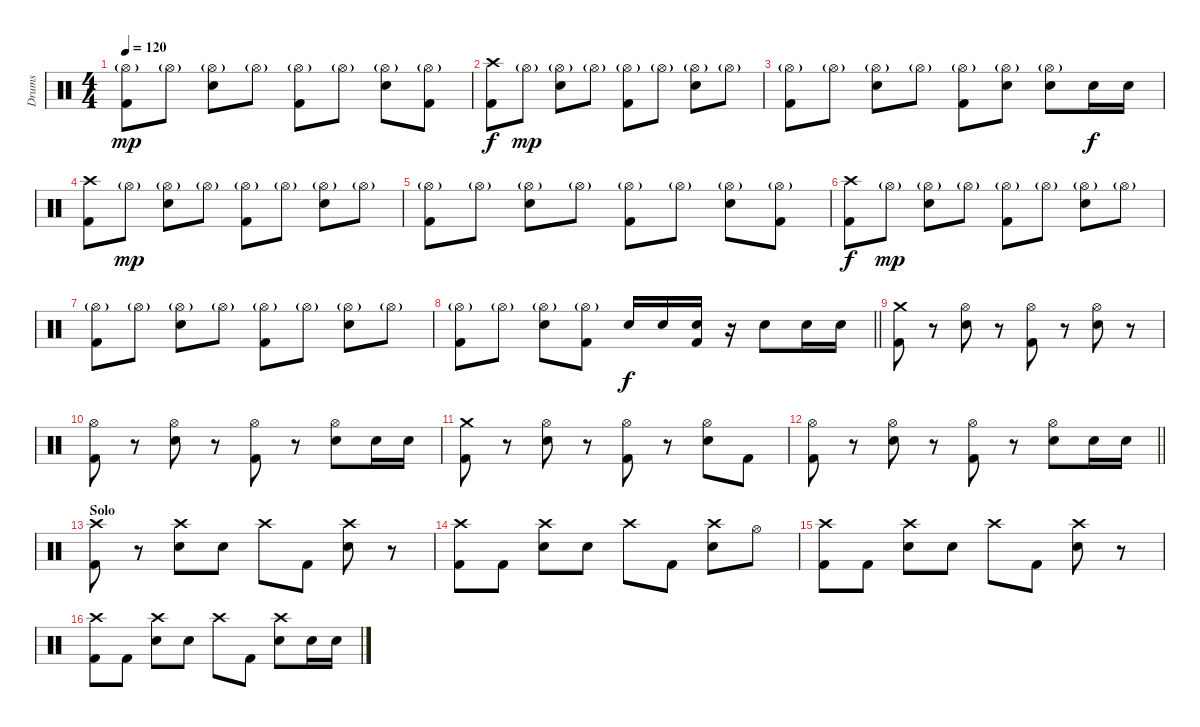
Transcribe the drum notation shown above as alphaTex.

\track ("Drums" "Drums") {instrument percussion}
\staff {score}
\articulation defaults
\ts (4 4)
\tempo 120
\clef neutral
\ks c
("Hi-Hat (open)"{g} "Kick (hit) 2").8{dy mp} "Hi-Hat (open)"{g}.8 ("Hi-Hat (open)"{g} "Electric Snare (hit)").8 "Hi-Hat (open)"{g}.8 ("Hi-Hat (open)"{g} "Kick (hit) 2").8 "Hi-Hat (open)"{g}.8 ("Hi-Hat (open)"{g} "Electric Snare (hit)").8 ("Hi-Hat (open)"{g} "Kick (hit) 2").8 |
("Crash high (hit)" "Kick (hit) 2").8{dy f} "Hi-Hat (open)"{g}.8{dy mp} ("Hi-Hat (open)"{g} "Electric Snare (hit)").8 "Hi-Hat (open)"{g}.8 ("Hi-Hat (open)"{g} "Kick (hit) 2").8 "Hi-Hat (open)"{g}.8 ("Hi-Hat (open)"{g} "Electric Snare (hit)").8 "Hi-Hat (open)"{g}.8 |
("Hi-Hat (open)"{g} "Kick (hit) 2").8 "Hi-Hat (open)"{g}.8 ("Hi-Hat (open)"{g} "Electric Snare (hit)").8 "Hi-Hat (open)"{g}.8 ("Hi-Hat (open)"{g} "Kick (hit) 2").8 ("Hi-Hat (open)"{g} "Electric Snare (hit)").8 ("Hi-Hat (open)"{g} "Electric Snare (hit)").8 "Electric Snare (hit)".16{dy f} "Electric Snare (hit)".16 |
("Crash high (hit)" "Kick (hit) 2").8 "Hi-Hat (open)"{g}.8{dy mp} ("Hi-Hat (open)"{g} "Electric Snare (hit)").8 "Hi-Hat (open)"{g}.8 ("Hi-Hat (open)"{g} "Kick (hit) 2").8 "Hi-Hat (open)"{g}.8 ("Hi-Hat (open)"{g} "Electric Snare (hit)").8 "Hi-Hat (open)"{g}.8 |
("Hi-Hat (open)"{g} "Kick (hit) 2").8 "Hi-Hat (open)"{g}.8 ("Hi-Hat (open)"{g} "Electric Snare (hit)").8 "Hi-Hat (open)"{g}.8 ("Hi-Hat (open)"{g} "Kick (hit) 2").8 "Hi-Hat (open)"{g}.8 ("Hi-Hat (open)"{g} "Electric Snare (hit)").8 ("Hi-Hat (open)"{g} "Kick (hit) 2").8 |
("Crash high (hit)" "Kick (hit) 2").8{dy f} "Hi-Hat (open)"{g}.8{dy mp} ("Hi-Hat (open)"{g} "Electric Snare (hit)").8 "Hi-Hat (open)"{g}.8 ("Hi-Hat (open)"{g} "Kick (hit) 2").8 "Hi-Hat (open)"{g}.8 ("Hi-Hat (open)"{g} "Electric Snare (hit)").8 "Hi-Hat (open)"{g}.8 |
("Hi-Hat (open)"{g} "Kick (hit) 2").8 "Hi-Hat (open)"{g}.8 ("Hi-Hat (open)"{g} "Electric Snare (hit)").8 "Hi-Hat (open)"{g}.8 ("Hi-Hat (open)"{g} "Kick (hit) 2").8 "Hi-Hat (open)"{g}.8 ("Hi-Hat (open)"{g} "Electric Snare (hit)").8 "Hi-Hat (open)"{g}.8 |
\barLineRight lightlight
("Hi-Hat (open)"{g} "Kick (hit) 2").8 "Hi-Hat (open)"{g}.8 ("Hi-Hat (open)"{g} "Electric Snare (hit)").8 ("Hi-Hat (open)"{g} "Kick (hit) 2").8 "Electric Snare (hit)".16{dy f} "Electric Snare (hit)".16 ("Electric Snare (hit)" "Kick (hit) 2").16 r.16 "Electric Snare (hit)".8 "Electric Snare (hit)".16 "Electric Snare (hit)".16 |
\section ("" "")
("Crash medium (hit)" "Kick (hit) 2").8 r.8 ("Hi-Hat (open)" "Electric Snare (hit)").8 r.8 ("Hi-Hat (open)" "Kick (hit) 2").8 r.8 ("Hi-Hat (open)" "Electric Snare (hit)").8 r.8 |
("Hi-Hat (open)" "Kick (hit) 2").8 r.8 ("Hi-Hat (open)" "Electric Snare (hit)").8 r.8 ("Hi-Hat (open)" "Kick (hit) 2").8 r.8 ("Hi-Hat (open)" "Electric Snare (hit)").8 "Electric Snare (hit)".16 "Electric Snare (hit)".16 |
("Crash medium (hit)" "Kick (hit) 2").8 r.8 ("Hi-Hat (open)" "Electric Snare (hit)").8 r.8 ("Hi-Hat (open)" "Kick (hit) 2").8 r.8 ("Hi-Hat (open)" "Electric Snare (hit)").8 "Kick (hit) 2".8 |
\barLineRight lightlight
("Hi-Hat (open)" "Kick (hit) 2").8 r.8 ("Hi-Hat (open)" "Electric Snare (hit)").8 r.8 ("Hi-Hat (open)" "Kick (hit) 2").8 r.8 ("Hi-Hat (open)" "Electric Snare (hit)").8 "Electric Snare (hit)".16 "Electric Snare (hit)".16 |
\section ("" "Solo")
("Crash high (hit)" "Kick (hit) 2").8 r.8 ("Crash high (hit)" "Electric Snare (hit)").8 "Electric Snare (hit)".8 "Crash high (hit)".8 "Kick (hit) 2".8 ("Crash high (hit)" "Electric Snare (hit)").8 r.8 |
("Crash high (hit)" "Kick (hit) 2").8 "Kick (hit) 2".8 ("Crash high (hit)" "Electric Snare (hit)").8 "Electric Snare (hit)".8 "Crash high (hit)".8 "Kick (hit) 2".8 ("Crash high (hit)" "Electric Snare (hit)").8 "Hi-Hat (open)".8 |
("Crash high (hit)" "Kick (hit) 2").8 "Kick (hit) 2".8 ("Crash high (hit)" "Electric Snare (hit)").8 "Electric Snare (hit)".8 "Crash high (hit)".8 "Kick (hit) 2".8 ("Crash high (hit)" "Electric Snare (hit)").8 r.8 |
("Crash high (hit)" "Kick (hit) 2").8 "Kick (hit) 2".8 ("Crash high (hit)" "Electric Snare (hit)").8 "Electric Snare (hit)".8 "Crash high (hit)".8 "Kick (hit) 2".8 ("Crash high (hit)" "Electric Snare (hit)").8 "Electric Snare (hit)".16 "Electric Snare (hit)".16
